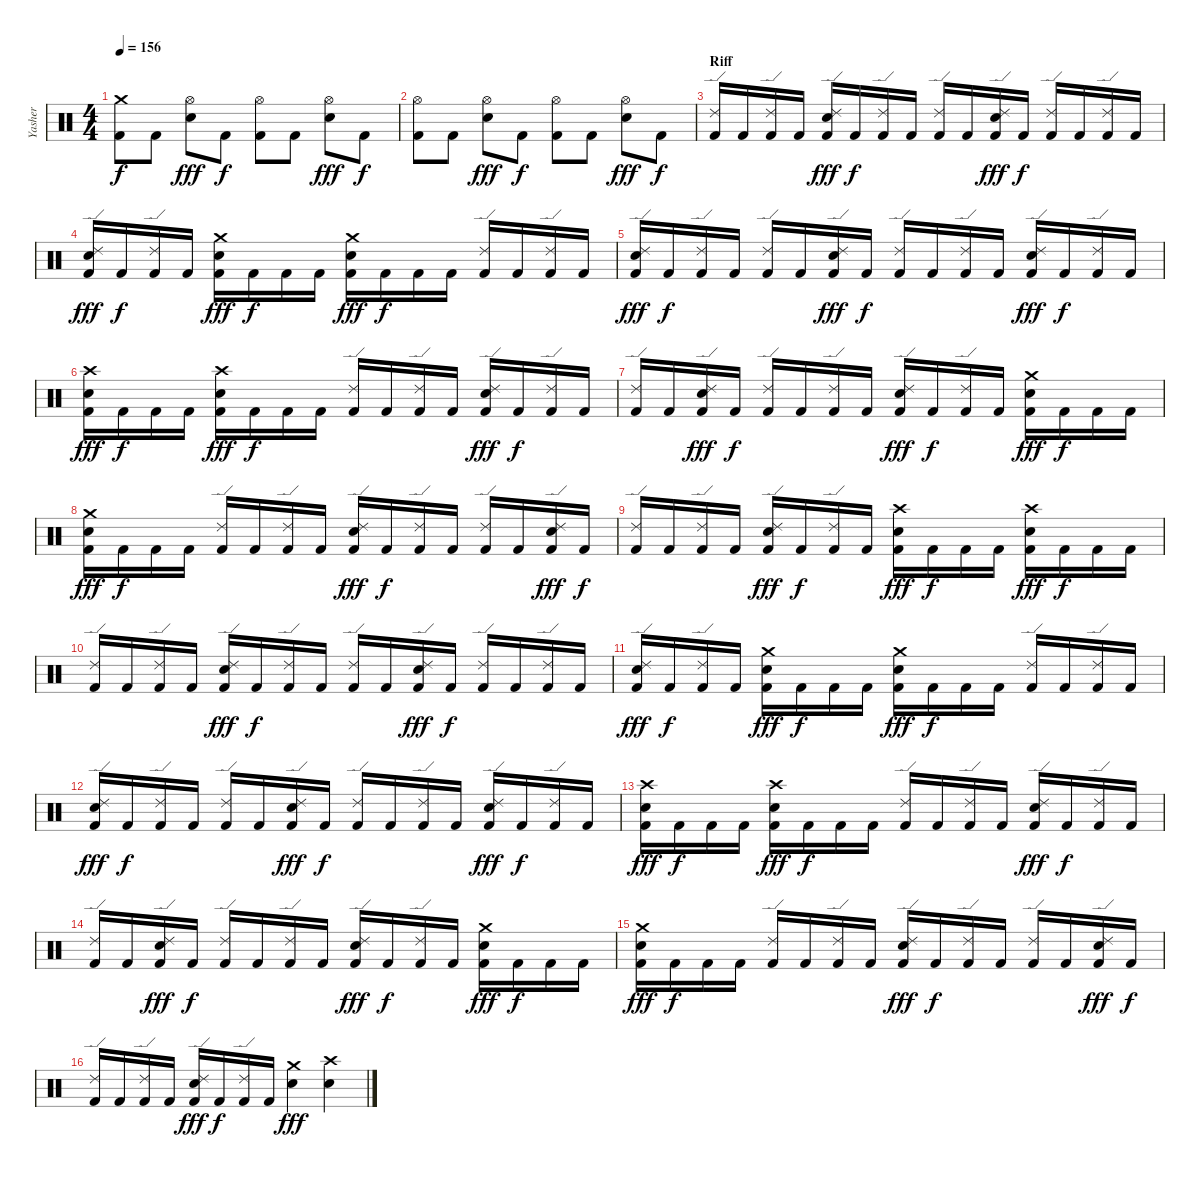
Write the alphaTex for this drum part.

\track ("Yasher" "Yasher") {instrument percussion}
\staff {score}
\articulation defaults
\ts (4 4)
\tempo 156
\clef neutral
\ks c
("Crash medium (hit)" "Kick (hit) 2").8{dy f} "Kick (hit) 2".8 ("Hi-Hat (open)" "Electric Snare (hit)").8{dy fff} "Kick (hit) 2".8{dy f} ("Hi-Hat (open)" "Kick (hit) 2").8 "Kick (hit) 2".8 ("Hi-Hat (open)" "Electric Snare (hit)").8{dy fff} "Kick (hit) 2".8{dy f} |
("Hi-Hat (open)" "Kick (hit) 2").8 "Kick (hit) 2".8 ("Hi-Hat (open)" "Electric Snare (hit)").8{dy fff} "Kick (hit) 2".8{dy f} ("Hi-Hat (open)" "Kick (hit) 2").8 "Kick (hit) 2".8 ("Hi-Hat (open)" "Electric Snare (hit)").8{dy fff} "Kick (hit) 2".8{dy f} |
\section ("" "Riff")
("Ride (edge) 2" "Kick (hit) 2").16 "Kick (hit) 2".16 ("Ride (edge) 2" "Kick (hit) 2").16 "Kick (hit) 2".16 ("Ride (edge) 2" "Electric Snare (hit)" "Kick (hit) 2").16{dy fff} "Kick (hit) 2".16{dy f} ("Ride (edge) 2" "Kick (hit) 2").16 "Kick (hit) 2".16 ("Ride (edge) 2" "Kick (hit) 2").16 "Kick (hit) 2".16 ("Ride (edge) 2" "Electric Snare (hit)" "Kick (hit) 2").16{dy fff} "Kick (hit) 2".16{dy f} ("Ride (edge) 2" "Kick (hit) 2").16 "Kick (hit) 2".16 ("Ride (edge) 2" "Kick (hit) 2").16 "Kick (hit) 2".16 |
("Ride (edge) 2" "Electric Snare (hit)" "Kick (hit) 2").16{dy fff} "Kick (hit) 2".16{dy f} ("Ride (edge) 2" "Kick (hit) 2").16 "Kick (hit) 2".16 ("Crash medium (hit)" "Electric Snare (hit)" "Kick (hit) 2").16{dy fff} "Kick (hit) 2".16{dy f} "Kick (hit) 2".16 "Kick (hit) 2".16 ("Crash medium (hit)" "Electric Snare (hit)" "Kick (hit) 2").16{dy fff} "Kick (hit) 2".16{dy f} "Kick (hit) 2".16 "Kick (hit) 2".16 ("Ride (edge) 2" "Kick (hit) 2").16 "Kick (hit) 2".16 ("Ride (edge) 2" "Kick (hit) 2").16 "Kick (hit) 2".16 |
("Ride (edge) 2" "Electric Snare (hit)" "Kick (hit) 2").16{dy fff} "Kick (hit) 2".16{dy f} ("Ride (edge) 2" "Kick (hit) 2").16 "Kick (hit) 2".16 ("Ride (edge) 2" "Kick (hit) 2").16 "Kick (hit) 2".16 ("Ride (edge) 2" "Electric Snare (hit)" "Kick (hit) 2").16{dy fff} "Kick (hit) 2".16{dy f} ("Ride (edge) 2" "Kick (hit) 2").16 "Kick (hit) 2".16 ("Ride (edge) 2" "Kick (hit) 2").16 "Kick (hit) 2".16 ("Ride (edge) 2" "Electric Snare (hit)" "Kick (hit) 2").16{dy fff} "Kick (hit) 2".16{dy f} ("Ride (edge) 2" "Kick (hit) 2").16 "Kick (hit) 2".16 |
("Crash high (hit)" "Electric Snare (hit)" "Kick (hit) 2").16{dy fff} "Kick (hit) 2".16{dy f} "Kick (hit) 2".16 "Kick (hit) 2".16 ("Crash high (hit)" "Electric Snare (hit)" "Kick (hit) 2").16{dy fff} "Kick (hit) 2".16{dy f} "Kick (hit) 2".16 "Kick (hit) 2".16 ("Ride (edge) 2" "Kick (hit) 2").16 "Kick (hit) 2".16 ("Ride (edge) 2" "Kick (hit) 2").16 "Kick (hit) 2".16 ("Ride (edge) 2" "Electric Snare (hit)" "Kick (hit) 2").16{dy fff} "Kick (hit) 2".16{dy f} ("Ride (edge) 2" "Kick (hit) 2").16 "Kick (hit) 2".16 |
("Ride (edge) 2" "Kick (hit) 2").16 "Kick (hit) 2".16 ("Ride (edge) 2" "Electric Snare (hit)" "Kick (hit) 2").16{dy fff} "Kick (hit) 2".16{dy f} ("Ride (edge) 2" "Kick (hit) 2").16 "Kick (hit) 2".16 ("Ride (edge) 2" "Kick (hit) 2").16 "Kick (hit) 2".16 ("Ride (edge) 2" "Electric Snare (hit)" "Kick (hit) 2").16{dy fff} "Kick (hit) 2".16{dy f} ("Ride (edge) 2" "Kick (hit) 2").16 "Kick (hit) 2".16 ("Crash medium (hit)" "Electric Snare (hit)" "Kick (hit) 2").16{dy fff} "Kick (hit) 2".16{dy f} "Kick (hit) 2".16 "Kick (hit) 2".16 |
("Crash medium (hit)" "Electric Snare (hit)" "Kick (hit) 2").16{dy fff} "Kick (hit) 2".16{dy f} "Kick (hit) 2".16 "Kick (hit) 2".16 ("Ride (edge) 2" "Kick (hit) 2").16 "Kick (hit) 2".16 ("Ride (edge) 2" "Kick (hit) 2").16 "Kick (hit) 2".16 ("Ride (edge) 2" "Electric Snare (hit)" "Kick (hit) 2").16{dy fff} "Kick (hit) 2".16{dy f} ("Ride (edge) 2" "Kick (hit) 2").16 "Kick (hit) 2".16 ("Ride (edge) 2" "Kick (hit) 2").16 "Kick (hit) 2".16 ("Ride (edge) 2" "Electric Snare (hit)" "Kick (hit) 2").16{dy fff} "Kick (hit) 2".16{dy f} |
("Ride (edge) 2" "Kick (hit) 2").16 "Kick (hit) 2".16 ("Ride (edge) 2" "Kick (hit) 2").16 "Kick (hit) 2".16 ("Ride (edge) 2" "Electric Snare (hit)" "Kick (hit) 2").16{dy fff} "Kick (hit) 2".16{dy f} ("Ride (edge) 2" "Kick (hit) 2").16 "Kick (hit) 2".16 ("Crash high (hit)" "Electric Snare (hit)" "Kick (hit) 2").16{dy fff} "Kick (hit) 2".16{dy f} "Kick (hit) 2".16 "Kick (hit) 2".16 ("Crash high (hit)" "Electric Snare (hit)" "Kick (hit) 2").16{dy fff} "Kick (hit) 2".16{dy f} "Kick (hit) 2".16 "Kick (hit) 2".16 |
("Ride (edge) 2" "Kick (hit) 2").16 "Kick (hit) 2".16 ("Ride (edge) 2" "Kick (hit) 2").16 "Kick (hit) 2".16 ("Ride (edge) 2" "Electric Snare (hit)" "Kick (hit) 2").16{dy fff} "Kick (hit) 2".16{dy f} ("Ride (edge) 2" "Kick (hit) 2").16 "Kick (hit) 2".16 ("Ride (edge) 2" "Kick (hit) 2").16 "Kick (hit) 2".16 ("Ride (edge) 2" "Electric Snare (hit)" "Kick (hit) 2").16{dy fff} "Kick (hit) 2".16{dy f} ("Ride (edge) 2" "Kick (hit) 2").16 "Kick (hit) 2".16 ("Ride (edge) 2" "Kick (hit) 2").16 "Kick (hit) 2".16 |
("Ride (edge) 2" "Electric Snare (hit)" "Kick (hit) 2").16{dy fff} "Kick (hit) 2".16{dy f} ("Ride (edge) 2" "Kick (hit) 2").16 "Kick (hit) 2".16 ("Crash medium (hit)" "Electric Snare (hit)" "Kick (hit) 2").16{dy fff} "Kick (hit) 2".16{dy f} "Kick (hit) 2".16 "Kick (hit) 2".16 ("Crash medium (hit)" "Electric Snare (hit)" "Kick (hit) 2").16{dy fff} "Kick (hit) 2".16{dy f} "Kick (hit) 2".16 "Kick (hit) 2".16 ("Ride (edge) 2" "Kick (hit) 2").16 "Kick (hit) 2".16 ("Ride (edge) 2" "Kick (hit) 2").16 "Kick (hit) 2".16 |
("Ride (edge) 2" "Electric Snare (hit)" "Kick (hit) 2").16{dy fff} "Kick (hit) 2".16{dy f} ("Ride (edge) 2" "Kick (hit) 2").16 "Kick (hit) 2".16 ("Ride (edge) 2" "Kick (hit) 2").16 "Kick (hit) 2".16 ("Ride (edge) 2" "Electric Snare (hit)" "Kick (hit) 2").16{dy fff} "Kick (hit) 2".16{dy f} ("Ride (edge) 2" "Kick (hit) 2").16 "Kick (hit) 2".16 ("Ride (edge) 2" "Kick (hit) 2").16 "Kick (hit) 2".16 ("Ride (edge) 2" "Electric Snare (hit)" "Kick (hit) 2").16{dy fff} "Kick (hit) 2".16{dy f} ("Ride (edge) 2" "Kick (hit) 2").16 "Kick (hit) 2".16 |
("Crash high (hit)" "Electric Snare (hit)" "Kick (hit) 2").16{dy fff} "Kick (hit) 2".16{dy f} "Kick (hit) 2".16 "Kick (hit) 2".16 ("Crash high (hit)" "Electric Snare (hit)" "Kick (hit) 2").16{dy fff} "Kick (hit) 2".16{dy f} "Kick (hit) 2".16 "Kick (hit) 2".16 ("Ride (edge) 2" "Kick (hit) 2").16 "Kick (hit) 2".16 ("Ride (edge) 2" "Kick (hit) 2").16 "Kick (hit) 2".16 ("Ride (edge) 2" "Electric Snare (hit)" "Kick (hit) 2").16{dy fff} "Kick (hit) 2".16{dy f} ("Ride (edge) 2" "Kick (hit) 2").16 "Kick (hit) 2".16 |
("Ride (edge) 2" "Kick (hit) 2").16 "Kick (hit) 2".16 ("Ride (edge) 2" "Electric Snare (hit)" "Kick (hit) 2").16{dy fff} "Kick (hit) 2".16{dy f} ("Ride (edge) 2" "Kick (hit) 2").16 "Kick (hit) 2".16 ("Ride (edge) 2" "Kick (hit) 2").16 "Kick (hit) 2".16 ("Ride (edge) 2" "Electric Snare (hit)" "Kick (hit) 2").16{dy fff} "Kick (hit) 2".16{dy f} ("Ride (edge) 2" "Kick (hit) 2").16 "Kick (hit) 2".16 ("Crash medium (hit)" "Electric Snare (hit)" "Kick (hit) 2").16{dy fff} "Kick (hit) 2".16{dy f} "Kick (hit) 2".16 "Kick (hit) 2".16 |
("Crash medium (hit)" "Electric Snare (hit)" "Kick (hit) 2").16{dy fff} "Kick (hit) 2".16{dy f} "Kick (hit) 2".16 "Kick (hit) 2".16 ("Ride (edge) 2" "Kick (hit) 2").16 "Kick (hit) 2".16 ("Ride (edge) 2" "Kick (hit) 2").16 "Kick (hit) 2".16 ("Ride (edge) 2" "Electric Snare (hit)" "Kick (hit) 2").16{dy fff} "Kick (hit) 2".16{dy f} ("Ride (edge) 2" "Kick (hit) 2").16 "Kick (hit) 2".16 ("Ride (edge) 2" "Kick (hit) 2").16 "Kick (hit) 2".16 ("Ride (edge) 2" "Electric Snare (hit)" "Kick (hit) 2").16{dy fff} "Kick (hit) 2".16{dy f} |
("Ride (edge) 2" "Kick (hit) 2").16 "Kick (hit) 2".16 ("Ride (edge) 2" "Kick (hit) 2").16 "Kick (hit) 2".16 ("Ride (edge) 2" "Electric Snare (hit)" "Kick (hit) 2").16{dy fff} "Kick (hit) 2".16{dy f} ("Ride (edge) 2" "Kick (hit) 2").16 "Kick (hit) 2".16 ("Crash medium (hit)" "Electric Snare (hit)").4{dy fff} ("Crash high (hit)" "Electric Snare (hit)").4
